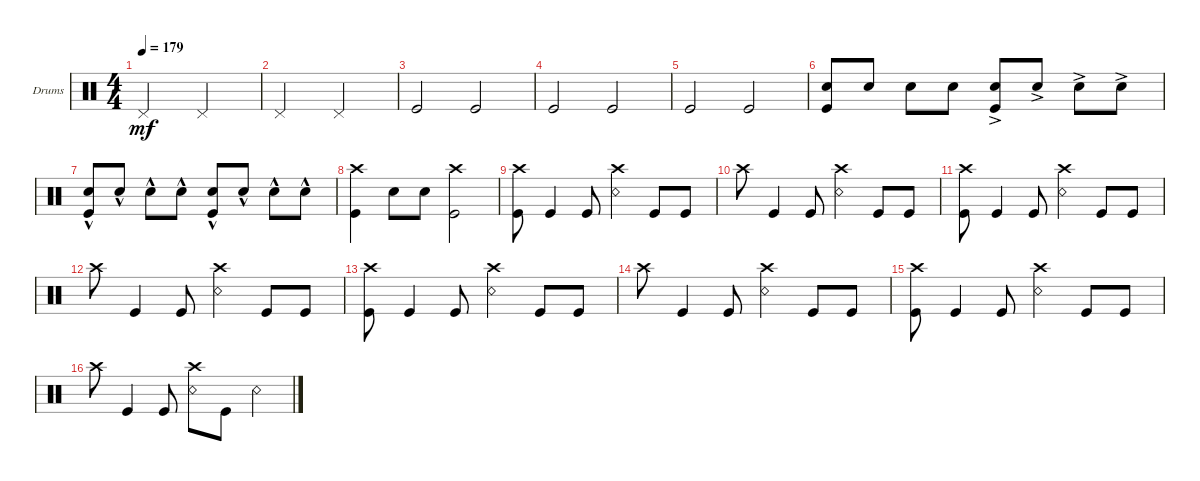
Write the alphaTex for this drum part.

\defaultSystemsLayout 4
\bracketExtendMode groupsimilarinstruments
\firstSystemTrackNameOrientation horizontal
\otherSystemsTrackNameOrientation horizontal
\track ("Drumkit" "Drums") {instrument percussion}
\staff {score}
\articulation defaults
\ts (4 4)
\tempo 179
\clef neutral
\ks c "Pedal Hi-Hat (hit)".2{dy mf} "Pedal Hi-Hat (hit)".2
|
"Pedal Hi-Hat (hit)".2 "Pedal Hi-Hat (hit)".2 |
"Kick (hit)".2 "Kick (hit)".2 |
"Kick (hit)".2 "Kick (hit)".2 |
"Kick (hit)".2 "Kick (hit)".2 |
("Snare (hit) 2" "Kick (hit)").8 "Snare (hit) 2".8 "Snare (hit) 2".8 "Snare (hit) 2".8 ("Snare (hit) 2"{ac} "Kick (hit)"{ac}).8 "Snare (hit) 2"{ac}.8 "Snare (hit) 2"{ac}.8 "Snare (hit) 2"{ac}.8 |
("Snare (hit) 2"{hac} "Kick (hit)"{hac}).8 "Snare (hit) 2"{hac}.8 "Snare (hit) 2"{hac}.8 "Snare (hit) 2"{hac}.8 ("Snare (hit) 2"{hac} "Kick (hit)"{hac}).8 "Snare (hit) 2"{hac}.8 "Snare (hit) 2"{hac}.8 "Snare (hit) 2"{hac}.8 |
("Crash high (hit)" "Kick (hit)").4 "Snare (hit) 2".8 "Snare (hit) 2".8 ("Crash high (hit)" "Kick (hit)").2 |
("Kick (hit)" "Crash high (hit)").8 "Kick (hit)".4 "Kick (hit)".8 ("Snare (rim shot)" "Crash high (hit)").4 "Kick (hit)".8 "Kick (hit)".8 |
"Crash high (hit)".8 "Kick (hit)".4 "Kick (hit)".8 ("Snare (rim shot)" "Crash high (hit)").4 "Kick (hit)".8 "Kick (hit)".8 |
("Kick (hit)" "Crash high (hit)").8 "Kick (hit)".4 "Kick (hit)".8 ("Snare (rim shot)" "Crash high (hit)").4 "Kick (hit)".8 "Kick (hit)".8 |
"Crash high (hit)".8 "Kick (hit)".4 "Kick (hit)".8 ("Snare (rim shot)" "Crash high (hit)").4 "Kick (hit)".8 "Kick (hit)".8 |
("Kick (hit)" "Crash high (hit)").8 "Kick (hit)".4 "Kick (hit)".8 ("Snare (rim shot)" "Crash high (hit)").4 "Kick (hit)".8 "Kick (hit)".8 |
"Crash high (hit)".8 "Kick (hit)".4 "Kick (hit)".8 ("Snare (rim shot)" "Crash high (hit)").4 "Kick (hit)".8 "Kick (hit)".8 |
("Kick (hit)" "Crash high (hit)").8 "Kick (hit)".4 "Kick (hit)".8 ("Snare (rim shot)" "Crash high (hit)").4 "Kick (hit)".8 "Kick (hit)".8 |
"Crash high (hit)".8 "Kick (hit)".4 "Kick (hit)".8 ("Snare (rim shot)" "Crash high (hit)").8 "Kick (hit)".8 "Snare (rim shot)".4
